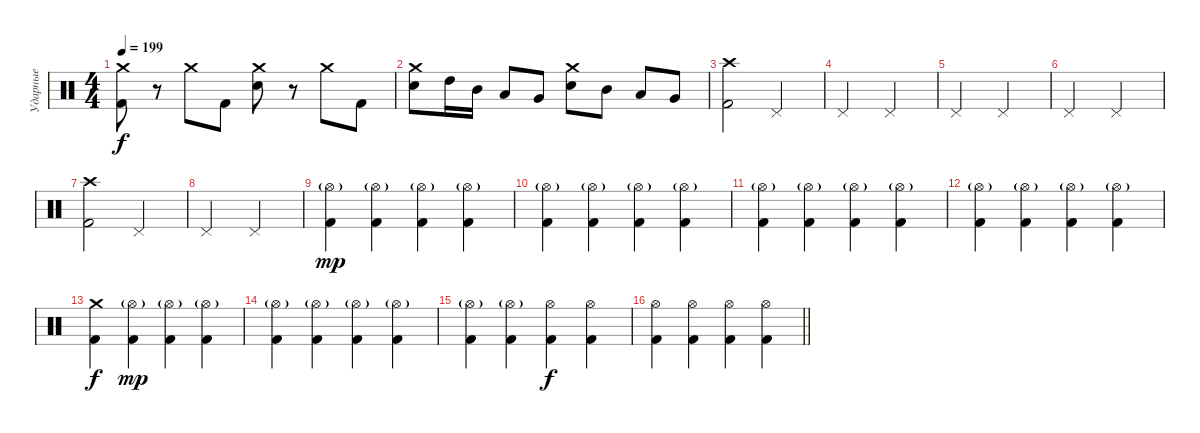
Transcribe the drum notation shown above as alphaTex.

\track ("Ударные" "Ударные") {instrument percussion}
\staff {score}
\articulation defaults
\ts (4 4)
\tempo 199
\clef neutral
\ks c
("Crash medium (hit)" "Kick (hit) 2").8{dy f} r.8 "Crash medium (hit)".8 "Kick (hit) 2".8 ("Crash medium (hit)" "Electric Snare (hit)").8 r.8 "Crash medium (hit)".8 "Kick (hit) 2".8 |
("Crash medium (hit)" "Electric Snare (hit)").8 "High Tom (hit)".16 "Mid Tom (hit)".16 "Low Tom (hit)".8 "Very Low Tom (hit)".8 ("Crash medium (hit)" "Electric Snare (hit)").8 "Mid Tom (hit)".8 "Low Tom (hit)".8 "Very Low Tom (hit)".8 |
("Crash high (hit)" "Kick (hit) 2").2 "Pedal Hi-Hat (hit)".2 |
"Pedal Hi-Hat (hit)".2 "Pedal Hi-Hat (hit)".2 |
"Pedal Hi-Hat (hit)".2 "Pedal Hi-Hat (hit)".2 |
"Pedal Hi-Hat (hit)".2 "Pedal Hi-Hat (hit)".2 |
("Crash high (hit)" "Kick (hit) 2").2 "Pedal Hi-Hat (hit)".2 |
"Pedal Hi-Hat (hit)".2 "Pedal Hi-Hat (hit)".2 |
("Hi-Hat (open)"{g} "Kick (hit) 2").4{dy mp} ("Hi-Hat (open)"{g} "Kick (hit) 2").4 ("Hi-Hat (open)"{g} "Kick (hit) 2").4 ("Hi-Hat (open)"{g} "Kick (hit) 2").4 |
("Hi-Hat (open)"{g} "Kick (hit) 2").4 ("Hi-Hat (open)"{g} "Kick (hit) 2").4 ("Hi-Hat (open)"{g} "Kick (hit) 2").4 ("Hi-Hat (open)"{g} "Kick (hit) 2").4 |
("Hi-Hat (open)"{g} "Kick (hit) 2").4 ("Hi-Hat (open)"{g} "Kick (hit) 2").4 ("Hi-Hat (open)"{g} "Kick (hit) 2").4 ("Hi-Hat (open)"{g} "Kick (hit) 2").4 |
("Hi-Hat (open)"{g} "Kick (hit) 2").4 ("Hi-Hat (open)"{g} "Kick (hit) 2").4 ("Hi-Hat (open)"{g} "Kick (hit) 2").4 ("Hi-Hat (open)"{g} "Kick (hit) 2").4 |
("Crash medium (hit)" "Kick (hit) 2").4{dy f} ("Hi-Hat (open)"{g} "Kick (hit) 2").4{dy mp} ("Hi-Hat (open)"{g} "Kick (hit) 2").4 ("Hi-Hat (open)"{g} "Kick (hit) 2").4 |
("Hi-Hat (open)"{g} "Kick (hit) 2").4 ("Hi-Hat (open)"{g} "Kick (hit) 2").4 ("Hi-Hat (open)"{g} "Kick (hit) 2").4 ("Hi-Hat (open)"{g} "Kick (hit) 2").4 |
("Hi-Hat (open)"{g} "Kick (hit) 2").4 ("Hi-Hat (open)"{g} "Kick (hit) 2").4 ("Hi-Hat (open)" "Kick (hit) 2").4{dy f} ("Hi-Hat (open)" "Kick (hit) 2").4 |
\barLineRight lightlight
("Hi-Hat (open)" "Kick (hit) 2").4 ("Hi-Hat (open)" "Kick (hit) 2").4 ("Hi-Hat (open)" "Kick (hit) 2").4 ("Hi-Hat (open)" "Kick (hit) 2").4
